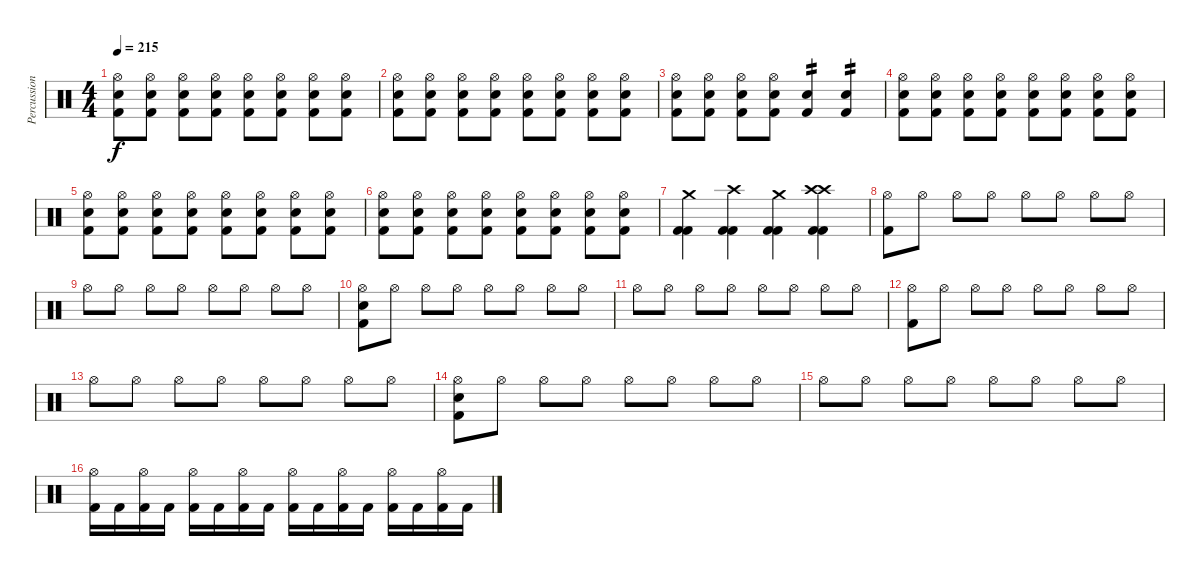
\track ("Percussion" "Percussion") {instrument percussion}
\staff {score}
\articulation defaults
\ts (4 4)
\tempo 215
\clef neutral
\ks c
("Hi-Hat (open)" "Electric Snare (hit)" "Kick (hit) 2").8{dy f} ("Hi-Hat (open)" "Electric Snare (hit)" "Kick (hit) 2").8 ("Hi-Hat (open)" "Electric Snare (hit)" "Kick (hit) 2").8 ("Hi-Hat (open)" "Electric Snare (hit)" "Kick (hit) 2").8 ("Hi-Hat (open)" "Electric Snare (hit)" "Kick (hit) 2").8 ("Hi-Hat (open)" "Electric Snare (hit)" "Kick (hit) 2").8 ("Hi-Hat (open)" "Electric Snare (hit)" "Kick (hit) 2").8 ("Hi-Hat (open)" "Electric Snare (hit)" "Kick (hit) 2").8 |
("Hi-Hat (open)" "Electric Snare (hit)" "Kick (hit) 2").8 ("Hi-Hat (open)" "Electric Snare (hit)" "Kick (hit) 2").8 ("Hi-Hat (open)" "Electric Snare (hit)" "Kick (hit) 2").8 ("Hi-Hat (open)" "Electric Snare (hit)" "Kick (hit) 2").8 ("Hi-Hat (open)" "Electric Snare (hit)" "Kick (hit) 2").8 ("Hi-Hat (open)" "Electric Snare (hit)" "Kick (hit) 2").8 ("Hi-Hat (open)" "Electric Snare (hit)" "Kick (hit) 2").8 ("Hi-Hat (open)" "Electric Snare (hit)" "Kick (hit) 2").8 |
("Hi-Hat (open)" "Electric Snare (hit)" "Kick (hit) 2").8 ("Hi-Hat (open)" "Electric Snare (hit)" "Kick (hit) 2").8 ("Hi-Hat (open)" "Electric Snare (hit)" "Kick (hit) 2").8 ("Hi-Hat (open)" "Electric Snare (hit)" "Kick (hit) 2").8 ("Electric Snare (hit)" "Kick (hit) 2").4{tp 2} ("Electric Snare (hit)" "Kick (hit) 2").4{tp 2} |
("Hi-Hat (open)" "Electric Snare (hit)" "Kick (hit) 2").8 ("Hi-Hat (open)" "Electric Snare (hit)" "Kick (hit) 2").8 ("Hi-Hat (open)" "Electric Snare (hit)" "Kick (hit) 2").8 ("Hi-Hat (open)" "Electric Snare (hit)" "Kick (hit) 2").8 ("Hi-Hat (open)" "Electric Snare (hit)" "Kick (hit) 2").8 ("Hi-Hat (open)" "Electric Snare (hit)" "Kick (hit) 2").8 ("Hi-Hat (open)" "Electric Snare (hit)" "Kick (hit) 2").8 ("Hi-Hat (open)" "Electric Snare (hit)" "Kick (hit) 2").8 |
("Hi-Hat (open)" "Electric Snare (hit)" "Kick (hit) 2").8 ("Hi-Hat (open)" "Electric Snare (hit)" "Kick (hit) 2").8 ("Hi-Hat (open)" "Electric Snare (hit)" "Kick (hit) 2").8 ("Hi-Hat (open)" "Electric Snare (hit)" "Kick (hit) 2").8 ("Hi-Hat (open)" "Electric Snare (hit)" "Kick (hit) 2").8 ("Hi-Hat (open)" "Electric Snare (hit)" "Kick (hit) 2").8 ("Hi-Hat (open)" "Electric Snare (hit)" "Kick (hit) 2").8 ("Hi-Hat (open)" "Electric Snare (hit)" "Kick (hit) 2").8 |
("Hi-Hat (open)" "Electric Snare (hit)" "Kick (hit) 2").8 ("Hi-Hat (open)" "Electric Snare (hit)" "Kick (hit) 2").8 ("Hi-Hat (open)" "Electric Snare (hit)" "Kick (hit) 2").8 ("Hi-Hat (open)" "Electric Snare (hit)" "Kick (hit) 2").8 ("Hi-Hat (open)" "Electric Snare (hit)" "Kick (hit) 2").8 ("Hi-Hat (open)" "Electric Snare (hit)" "Kick (hit) 2").8 ("Hi-Hat (open)" "Electric Snare (hit)" "Kick (hit) 2").8 ("Hi-Hat (open)" "Electric Snare (hit)" "Kick (hit) 2").8 |
("Crash medium (hit)" "Kick (hit) 2" "Kick (hit) 2").4 ("Crash high (hit)" "Kick (hit) 2" "Kick (hit) 2").4 ("Crash medium (hit)" "Kick (hit) 2" "Kick (hit) 2").4 ("Crash high (hit)" "Crash high (hit)" "Kick (hit) 2" "Kick (hit) 2").4 |
("Hi-Hat (open)" "Kick (hit) 2").8 "Hi-Hat (open)".8 "Hi-Hat (open)".8 "Hi-Hat (open)".8 "Hi-Hat (open)".8 "Hi-Hat (open)".8 "Hi-Hat (open)".8 "Hi-Hat (open)".8 |
"Hi-Hat (open)".8 "Hi-Hat (open)".8 "Hi-Hat (open)".8 "Hi-Hat (open)".8 "Hi-Hat (open)".8 "Hi-Hat (open)".8 "Hi-Hat (open)".8 "Hi-Hat (open)".8 |
("Hi-Hat (open)" "Electric Snare (hit)" "Kick (hit) 2").8 "Hi-Hat (open)".8 "Hi-Hat (open)".8 "Hi-Hat (open)".8 "Hi-Hat (open)".8 "Hi-Hat (open)".8 "Hi-Hat (open)".8 "Hi-Hat (open)".8 |
"Hi-Hat (open)".8 "Hi-Hat (open)".8 "Hi-Hat (open)".8 "Hi-Hat (open)".8 "Hi-Hat (open)".8 "Hi-Hat (open)".8 "Hi-Hat (open)".8 "Hi-Hat (open)".8 |
("Hi-Hat (open)" "Kick (hit) 2").8 "Hi-Hat (open)".8 "Hi-Hat (open)".8 "Hi-Hat (open)".8 "Hi-Hat (open)".8 "Hi-Hat (open)".8 "Hi-Hat (open)".8 "Hi-Hat (open)".8 |
"Hi-Hat (open)".8 "Hi-Hat (open)".8 "Hi-Hat (open)".8 "Hi-Hat (open)".8 "Hi-Hat (open)".8 "Hi-Hat (open)".8 "Hi-Hat (open)".8 "Hi-Hat (open)".8 |
("Hi-Hat (open)" "Electric Snare (hit)" "Kick (hit) 2").8 "Hi-Hat (open)".8 "Hi-Hat (open)".8 "Hi-Hat (open)".8 "Hi-Hat (open)".8 "Hi-Hat (open)".8 "Hi-Hat (open)".8 "Hi-Hat (open)".8 |
"Hi-Hat (open)".8 "Hi-Hat (open)".8 "Hi-Hat (open)".8 "Hi-Hat (open)".8 "Hi-Hat (open)".8 "Hi-Hat (open)".8 "Hi-Hat (open)".8 "Hi-Hat (open)".8 |
("Hi-Hat (open)" "Kick (hit) 2").16 "Kick (hit) 2".16 ("Hi-Hat (open)" "Kick (hit) 2").16 "Kick (hit) 2".16 ("Hi-Hat (open)" "Kick (hit) 2").16 "Kick (hit) 2".16 ("Hi-Hat (open)" "Kick (hit) 2").16 "Kick (hit) 2".16 ("Hi-Hat (open)" "Kick (hit) 2").16 "Kick (hit) 2".16 ("Hi-Hat (open)" "Kick (hit) 2").16 "Kick (hit) 2".16 ("Hi-Hat (open)" "Kick (hit) 2").16 "Kick (hit) 2".16 ("Hi-Hat (open)" "Kick (hit) 2").16 "Kick (hit) 2".16
